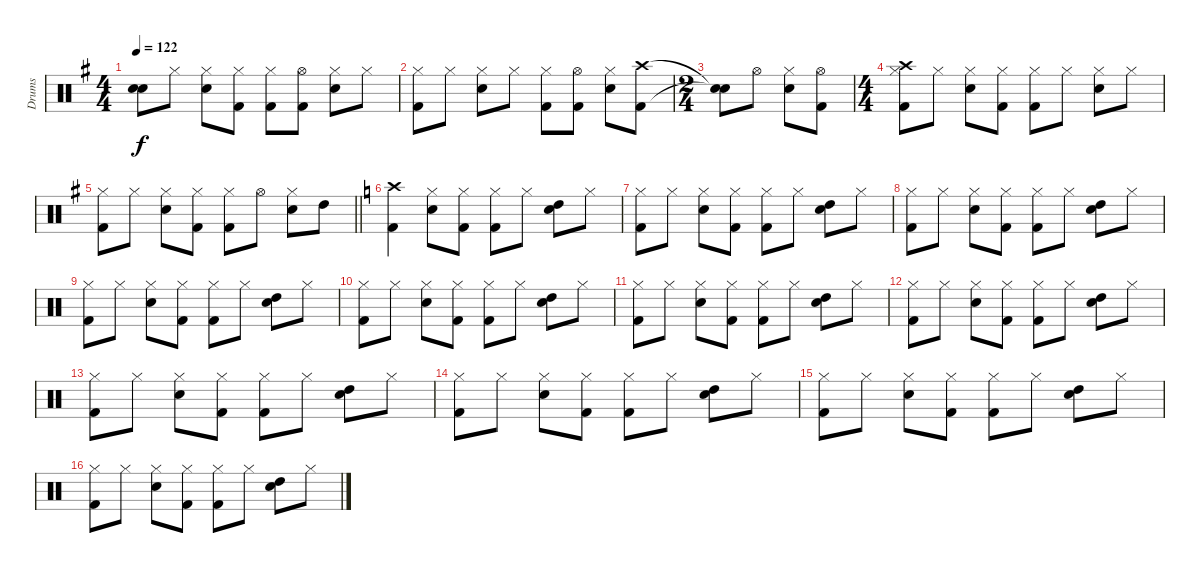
\track ("Drums" "Drums") {instrument percussion}
\staff {score}
\articulation defaults
\ts (4 4)
\tempo 122
\clef neutral
\ks g
("Snare (hit)"{t} "Snare (hit)"{t}).8{dy f} "Hi-Hat (closed)".8 ("Hi-Hat (closed)" "Electric Snare (hit)").8 ("Hi-Hat (closed)" "Kick (hit) 2").8 ("Hi-Hat (closed)" "Kick (hit) 2").8 ("Hi-Hat (open)" "Kick (hit) 2").8 ("Hi-Hat (closed)" "Electric Snare (hit)").8 "Hi-Hat (closed)".8 |
("Hi-Hat (closed)" "Kick (hit) 2").8 "Hi-Hat (closed)".8 ("Hi-Hat (closed)" "Electric Snare (hit)").8 "Hi-Hat (closed)".8 ("Hi-Hat (closed)" "Kick (hit) 2").8 ("Hi-Hat (open)" "Kick (hit) 2").8 ("Hi-Hat (closed)" "Electric Snare (hit)").8 ("Crash high (hit)" "Kick (hit) 2").8 |
\ts (2 4)
("Snare (hit)"{t} "Snare (hit)"{t}).8 "Hi-Hat (open)".8 ("Hi-Hat (closed)" "Electric Snare (hit)").8 ("Hi-Hat (open)" "Kick (hit) 2").8 |
\ts (4 4)
("Hi-Hat (closed)" "Crash high (hit)" "Kick (hit) 2").8 "Hi-Hat (closed)".8 ("Hi-Hat (closed)" "Electric Snare (hit)").8 ("Hi-Hat (closed)" "Kick (hit) 2").8 ("Hi-Hat (closed)" "Kick (hit) 2").8 "Hi-Hat (closed)".8 ("Hi-Hat (closed)" "Electric Snare (hit)").8 "Hi-Hat (closed)".8 |
\barLineRight lightlight
("Hi-Hat (closed)" "Kick (hit) 2").8 "Hi-Hat (closed)".8 ("Hi-Hat (closed)" "Electric Snare (hit)").8 ("Hi-Hat (closed)" "Kick (hit) 2").8 ("Hi-Hat (closed)" "Kick (hit) 2").8 "Hi-Hat (open)".8 ("Hi-Hat (closed)" "Electric Snare (hit)").8 "High Tom (hit)".8 |
\ks c
("Crash high (hit)" "Kick (hit) 2").4 ("Hi-Hat (closed)" "Electric Snare (hit)").8 ("Hi-Hat (closed)" "Kick (hit) 2").8 ("Hi-Hat (closed)" "Kick (hit) 2").8 "Hi-Hat (closed)".8 ("Electric Snare (hit)" "High Tom (hit)").8 "Hi-Hat (closed)".8 |
("Hi-Hat (closed)" "Kick (hit) 2").8 "Hi-Hat (closed)".8 ("Hi-Hat (closed)" "Electric Snare (hit)").8 ("Hi-Hat (closed)" "Kick (hit) 2").8 ("Hi-Hat (closed)" "Kick (hit) 2").8 "Hi-Hat (closed)".8 ("Electric Snare (hit)" "High Tom (hit)").8 "Hi-Hat (closed)".8 |
("Hi-Hat (closed)" "Kick (hit) 2").8 "Hi-Hat (closed)".8 ("Hi-Hat (closed)" "Electric Snare (hit)").8 ("Hi-Hat (closed)" "Kick (hit) 2").8 ("Hi-Hat (closed)" "Kick (hit) 2").8 "Hi-Hat (closed)".8 ("Electric Snare (hit)" "High Tom (hit)").8 "Hi-Hat (closed)".8 |
("Hi-Hat (closed)" "Kick (hit) 2").8 "Hi-Hat (closed)".8 ("Hi-Hat (closed)" "Electric Snare (hit)").8 ("Hi-Hat (closed)" "Kick (hit) 2").8 ("Hi-Hat (closed)" "Kick (hit) 2").8 "Hi-Hat (closed)".8 ("Electric Snare (hit)" "High Tom (hit)").8 "Hi-Hat (closed)".8 |
("Hi-Hat (closed)" "Kick (hit) 2").8 "Hi-Hat (closed)".8 ("Hi-Hat (closed)" "Electric Snare (hit)").8 ("Hi-Hat (closed)" "Kick (hit) 2").8 ("Hi-Hat (closed)" "Kick (hit) 2").8 "Hi-Hat (closed)".8 ("Electric Snare (hit)" "High Tom (hit)").8 "Hi-Hat (closed)".8 |
("Hi-Hat (closed)" "Kick (hit) 2").8 "Hi-Hat (closed)".8 ("Hi-Hat (closed)" "Electric Snare (hit)").8 ("Hi-Hat (closed)" "Kick (hit) 2").8 ("Hi-Hat (closed)" "Kick (hit) 2").8 "Hi-Hat (closed)".8 ("Electric Snare (hit)" "High Tom (hit)").8 "Hi-Hat (closed)".8 |
("Hi-Hat (closed)" "Kick (hit) 2").8 "Hi-Hat (closed)".8 ("Hi-Hat (closed)" "Electric Snare (hit)").8 ("Hi-Hat (closed)" "Kick (hit) 2").8 ("Hi-Hat (closed)" "Kick (hit) 2").8 "Hi-Hat (closed)".8 ("Electric Snare (hit)" "High Tom (hit)").8 "Hi-Hat (closed)".8 |
("Hi-Hat (closed)" "Kick (hit) 2").8 "Hi-Hat (closed)".8 ("Hi-Hat (closed)" "Electric Snare (hit)").8 ("Hi-Hat (closed)" "Kick (hit) 2").8 ("Hi-Hat (closed)" "Kick (hit) 2").8 "Hi-Hat (closed)".8 ("Electric Snare (hit)" "High Tom (hit)").8 "Hi-Hat (closed)".8 |
("Hi-Hat (closed)" "Kick (hit) 2").8 "Hi-Hat (closed)".8 ("Hi-Hat (closed)" "Electric Snare (hit)").8 ("Hi-Hat (closed)" "Kick (hit) 2").8 ("Hi-Hat (closed)" "Kick (hit) 2").8 "Hi-Hat (closed)".8 ("Electric Snare (hit)" "High Tom (hit)").8 "Hi-Hat (closed)".8 |
("Hi-Hat (closed)" "Kick (hit) 2").8 "Hi-Hat (closed)".8 ("Hi-Hat (closed)" "Electric Snare (hit)").8 ("Hi-Hat (closed)" "Kick (hit) 2").8 ("Hi-Hat (closed)" "Kick (hit) 2").8 "Hi-Hat (closed)".8 ("Electric Snare (hit)" "High Tom (hit)").8 "Hi-Hat (closed)".8 |
("Hi-Hat (closed)" "Kick (hit) 2").8 "Hi-Hat (closed)".8 ("Hi-Hat (closed)" "Electric Snare (hit)").8 ("Hi-Hat (closed)" "Kick (hit) 2").8 ("Hi-Hat (closed)" "Kick (hit) 2").8 "Hi-Hat (closed)".8 ("Electric Snare (hit)" "High Tom (hit)").8 "Hi-Hat (closed)".8
